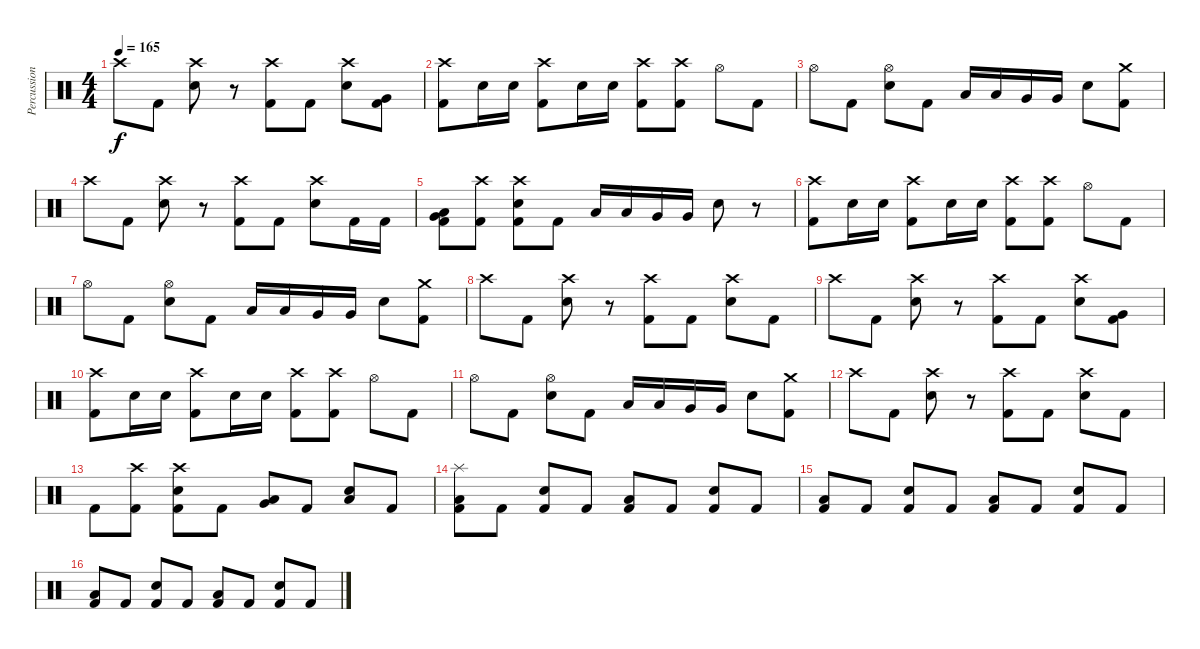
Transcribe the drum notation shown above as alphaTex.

\track ("Percussion" "Percussion") {instrument percussion}
\staff {score}
\articulation defaults
\ts (4 4)
\tempo 165
\clef neutral
\ks c "Crash high (hit)".8{dy f} "Kick (hit) 2".8
("Crash high (hit)" "Electric Snare (hit)").8 r.8 ("Crash high (hit)" "Kick (hit) 2").8 "Kick (hit) 2".8 ("Crash high (hit)" "Electric Snare (hit)").8 ("Very Low Tom (hit)" "Kick (hit) 2").8 |
("Crash high (hit)" "Kick (hit) 2").8 "Electric Snare (hit)".16 "Electric Snare (hit)".16 ("Crash high (hit)" "Kick (hit) 2").8 "Electric Snare (hit)".16 "Electric Snare (hit)".16 ("Crash high (hit)" "Kick (hit) 2").8 ("Crash high (hit)" "Kick (hit) 2").8 "Hi-Hat (open)".8 "Kick (hit) 2".8 |
"Hi-Hat (open)".8 "Kick (hit) 2".8 ("Hi-Hat (open)" "Electric Snare (hit)").8 "Kick (hit) 2".8 "Low Tom (hit)".16 "Low Tom (hit)".16 "Very Low Tom (hit)".16 "Very Low Tom (hit)".16 "Electric Snare (hit)".8 ("Crash medium (hit)" "Kick (hit) 2").8 |
"Crash high (hit)".8 "Kick (hit) 2".8 ("Crash high (hit)" "Electric Snare (hit)").8 r.8 ("Crash high (hit)" "Kick (hit) 2").8 "Kick (hit) 2".8 ("Crash high (hit)" "Electric Snare (hit)").8 "Kick (hit) 2".16 "Kick (hit) 2".16 |
("Low Tom (hit)" "Very Low Tom (hit)" "Kick (hit) 2").8 ("Crash high (hit)" "Kick (hit) 2").8 ("Crash high (hit)" "Electric Snare (hit)" "Kick (hit) 2").8 "Kick (hit) 2".8 "Low Tom (hit)".16 "Low Tom (hit)".16 "Very Low Tom (hit)".16 "Very Low Tom (hit)".16 "Electric Snare (hit)".8 r.8 |
("Crash high (hit)" "Kick (hit) 2").8 "Electric Snare (hit)".16 "Electric Snare (hit)".16 ("Crash high (hit)" "Kick (hit) 2").8 "Electric Snare (hit)".16 "Electric Snare (hit)".16 ("Crash high (hit)" "Kick (hit) 2").8 ("Crash high (hit)" "Kick (hit) 2").8 "Hi-Hat (open)".8 "Kick (hit) 2".8 |
"Hi-Hat (open)".8 "Kick (hit) 2".8 ("Hi-Hat (open)" "Electric Snare (hit)").8 "Kick (hit) 2".8 "Low Tom (hit)".16 "Low Tom (hit)".16 "Very Low Tom (hit)".16 "Very Low Tom (hit)".16 "Electric Snare (hit)".8 ("Crash medium (hit)" "Kick (hit) 2").8 |
"Crash high (hit)".8 "Kick (hit) 2".8 ("Crash high (hit)" "Electric Snare (hit)").8 r.8 ("Crash high (hit)" "Kick (hit) 2").8 "Kick (hit) 2".8 ("Crash high (hit)" "Electric Snare (hit)").8 "Kick (hit) 2".8 |
"Crash high (hit)".8 "Kick (hit) 2".8 ("Crash high (hit)" "Electric Snare (hit)").8 r.8 ("Crash high (hit)" "Kick (hit) 2").8 "Kick (hit) 2".8 ("Crash high (hit)" "Electric Snare (hit)").8 ("Very Low Tom (hit)" "Kick (hit) 2").8 |
("Crash high (hit)" "Kick (hit) 2").8 "Electric Snare (hit)".16 "Electric Snare (hit)".16 ("Crash high (hit)" "Kick (hit) 2").8 "Electric Snare (hit)".16 "Electric Snare (hit)".16 ("Crash high (hit)" "Kick (hit) 2").8 ("Crash high (hit)" "Kick (hit) 2").8 "Hi-Hat (open)".8 "Kick (hit) 2".8 |
"Hi-Hat (open)".8 "Kick (hit) 2".8 ("Hi-Hat (open)" "Electric Snare (hit)").8 "Kick (hit) 2".8 "Low Tom (hit)".16 "Low Tom (hit)".16 "Very Low Tom (hit)".16 "Very Low Tom (hit)".16 "Electric Snare (hit)".8 ("Crash medium (hit)" "Kick (hit) 2").8 |
"Crash high (hit)".8 "Kick (hit) 2".8 ("Crash high (hit)" "Electric Snare (hit)").8 r.8 ("Crash high (hit)" "Kick (hit) 2").8 "Kick (hit) 2".8 ("Crash high (hit)" "Electric Snare (hit)").8 "Kick (hit) 2".8 |
"Kick (hit) 2".8 ("Crash high (hit)" "Kick (hit) 2").8 ("Crash high (hit)" "Electric Snare (hit)" "Kick (hit) 2").8 "Kick (hit) 2".8 ("Low Tom (hit)" "Very Low Tom (hit)").8 "Kick (hit) 2".8 ("Electric Snare (hit)" "Low Floor Tom (hit)").8 "Kick (hit) 2".8 |
("Splash (hit)" "Low Floor Tom (hit)" "Kick (hit) 2").8 "Kick (hit) 2".8 ("Electric Snare (hit)" "Kick (hit) 2").8 "Kick (hit) 2".8 ("Low Floor Tom (hit)" "Kick (hit) 2").8 "Kick (hit) 2".8 ("Electric Snare (hit)" "Kick (hit) 2").8 "Kick (hit) 2".8 |
("Low Floor Tom (hit)" "Kick (hit) 2").8 "Kick (hit) 2".8 ("Electric Snare (hit)" "Kick (hit) 2").8 "Kick (hit) 2".8 ("Low Floor Tom (hit)" "Kick (hit) 2").8 "Kick (hit) 2".8 ("Electric Snare (hit)" "Kick (hit) 2").8 "Kick (hit) 2".8 |
("Low Floor Tom (hit)" "Kick (hit) 2").8 "Kick (hit) 2".8 ("Electric Snare (hit)" "Kick (hit) 2").8 "Kick (hit) 2".8 ("Low Floor Tom (hit)" "Kick (hit) 2").8 "Kick (hit) 2".8 ("Electric Snare (hit)" "Kick (hit) 2").8 "Kick (hit) 2".8
